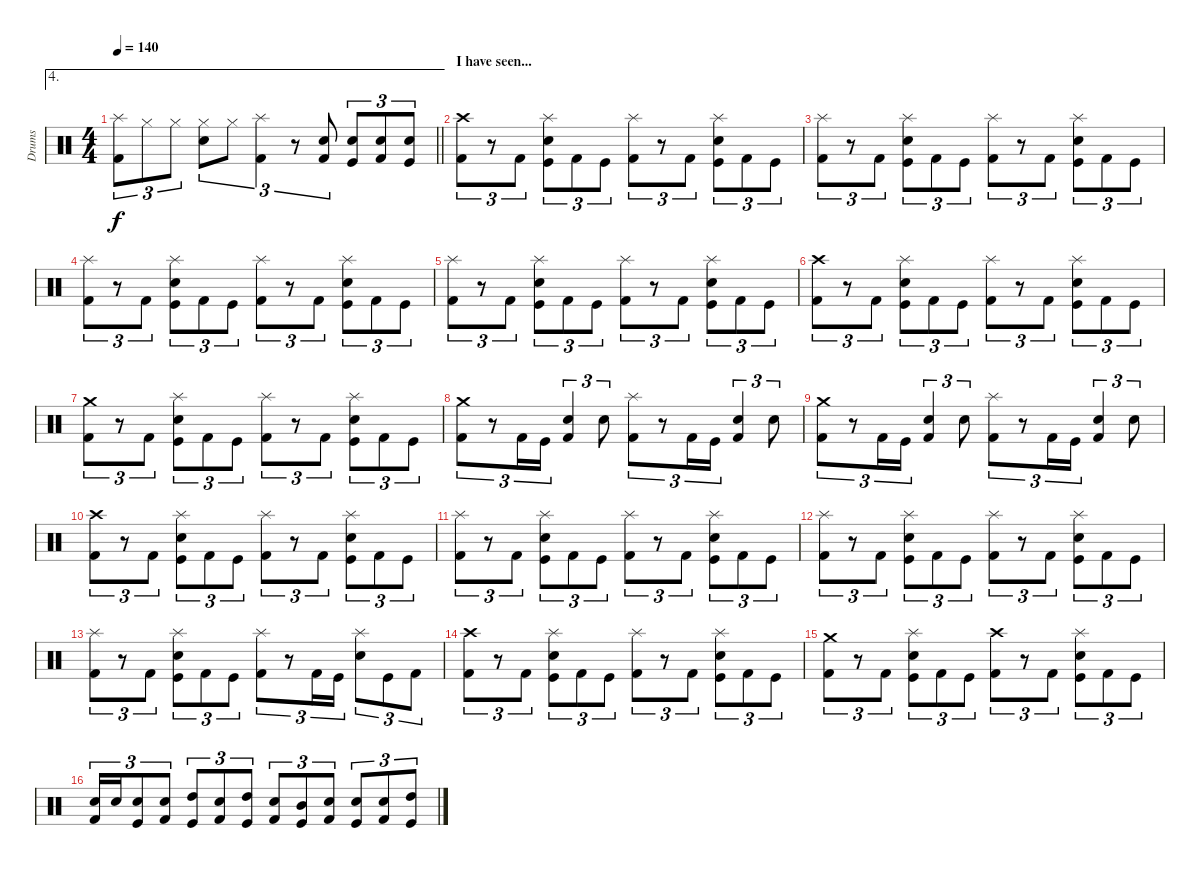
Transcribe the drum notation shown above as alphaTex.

\track ("Drums" "Drums") {instrument percussion}
\staff {score}
\articulation defaults
\ae 4
\ts (4 4)
\tempo 140
\clef neutral
\barLineRight lightlight
\ks c
("Splash (hit)" "Kick (hit) 2").8{tu (3 2) dy f} "Hi-Hat (closed)".8{tu (3 2)} "Hi-Hat (closed)".8{tu (3 2)} ("Hi-Hat (closed)" "Snare (hit) 2").8{tu (3 2)} "Hi-Hat (closed)".8{tu (3 2)} ("Splash (hit)" "Kick (hit) 2").4{tu (3 2)} r.8{tu (3 2)} ("Snare (hit) 2" "Kick (hit) 2").8{tu (3 2)} ("Snare (hit) 2" "Kick (hit)").8{tu (3 2)} ("Snare (hit) 2" "Kick (hit) 2").8{tu (3 2)} ("Snare (hit) 2" "Kick (hit)").8{tu (3 2)} |
\section ("" "I have seen...")
("Crash high (hit)" "Kick (hit) 2").8{tu (3 2)} r.8{tu (3 2)} "Kick (hit) 2".8{tu (3 2)} ("Splash (hit)" "Snare (hit) 2" "Kick (hit)").8{tu (3 2)} "Kick (hit) 2".8{tu (3 2)} "Kick (hit)".8{tu (3 2)} ("Splash (hit)" "Kick (hit) 2").8{tu (3 2)} r.8{tu (3 2)} "Kick (hit) 2".8{tu (3 2)} ("Splash (hit)" "Snare (hit) 2" "Kick (hit)").8{tu (3 2)} "Kick (hit) 2".8{tu (3 2)} "Kick (hit)".8{tu (3 2)} |
("Splash (hit)" "Kick (hit) 2").8{tu (3 2)} r.8{tu (3 2)} "Kick (hit) 2".8{tu (3 2)} ("Splash (hit)" "Snare (hit) 2" "Kick (hit)").8{tu (3 2)} "Kick (hit) 2".8{tu (3 2)} "Kick (hit)".8{tu (3 2)} ("Splash (hit)" "Kick (hit) 2").8{tu (3 2)} r.8{tu (3 2)} "Kick (hit) 2".8{tu (3 2)} ("Splash (hit)" "Snare (hit) 2" "Kick (hit)").8{tu (3 2)} "Kick (hit) 2".8{tu (3 2)} "Kick (hit)".8{tu (3 2)} |
("Splash (hit)" "Kick (hit) 2").8{tu (3 2)} r.8{tu (3 2)} "Kick (hit) 2".8{tu (3 2)} ("Splash (hit)" "Snare (hit) 2" "Kick (hit)").8{tu (3 2)} "Kick (hit) 2".8{tu (3 2)} "Kick (hit)".8{tu (3 2)} ("Splash (hit)" "Kick (hit) 2").8{tu (3 2)} r.8{tu (3 2)} "Kick (hit) 2".8{tu (3 2)} ("Splash (hit)" "Snare (hit) 2" "Kick (hit)").8{tu (3 2)} "Kick (hit) 2".8{tu (3 2)} "Kick (hit)".8{tu (3 2)} |
("Splash (hit)" "Kick (hit) 2").8{tu (3 2)} r.8{tu (3 2)} "Kick (hit) 2".8{tu (3 2)} ("Splash (hit)" "Snare (hit) 2" "Kick (hit)").8{tu (3 2)} "Kick (hit) 2".8{tu (3 2)} "Kick (hit)".8{tu (3 2)} ("Splash (hit)" "Kick (hit) 2").8{tu (3 2)} r.8{tu (3 2)} "Kick (hit) 2".8{tu (3 2)} ("Splash (hit)" "Snare (hit) 2" "Kick (hit)").8{tu (3 2)} "Kick (hit) 2".8{tu (3 2)} "Kick (hit)".8{tu (3 2)} |
("Crash high (hit)" "Kick (hit) 2").8{tu (3 2)} r.8{tu (3 2)} "Kick (hit) 2".8{tu (3 2)} ("Splash (hit)" "Snare (hit) 2" "Kick (hit)").8{tu (3 2)} "Kick (hit) 2".8{tu (3 2)} "Kick (hit)".8{tu (3 2)} ("Splash (hit)" "Kick (hit) 2").8{tu (3 2)} r.8{tu (3 2)} "Kick (hit) 2".8{tu (3 2)} ("Splash (hit)" "Snare (hit) 2" "Kick (hit)").8{tu (3 2)} "Kick (hit) 2".8{tu (3 2)} "Kick (hit)".8{tu (3 2)} |
("Crash medium (hit)" "Kick (hit) 2").8{tu (3 2)} r.8{tu (3 2)} "Kick (hit) 2".8{tu (3 2)} ("Splash (hit)" "Snare (hit) 2" "Kick (hit)").8{tu (3 2)} "Kick (hit) 2".8{tu (3 2)} "Kick (hit)".8{tu (3 2)} ("Splash (hit)" "Kick (hit) 2").8{tu (3 2)} r.8{tu (3 2)} "Kick (hit) 2".8{tu (3 2)} ("Splash (hit)" "Snare (hit) 2" "Kick (hit)").8{tu (3 2)} "Kick (hit) 2".8{tu (3 2)} "Kick (hit)".8{tu (3 2)} |
("Crash medium (hit)" "Kick (hit) 2").8{tu (3 2)} r.8{tu (3 2)} "Kick (hit) 2".16{tu (3 2)} "Kick (hit)".16{tu (3 2)} ("Snare (hit) 2" "Kick (hit) 2").4{tu (3 2)} "Snare (hit) 2".8{tu (3 2)} ("Splash (hit)" "Kick (hit) 2").8{tu (3 2)} r.8{tu (3 2)} "Kick (hit) 2".16{tu (3 2)} "Kick (hit)".16{tu (3 2)} ("Snare (hit) 2" "Kick (hit) 2").4{tu (3 2)} "Snare (hit) 2".8{tu (3 2)} |
("Crash medium (hit)" "Kick (hit) 2").8{tu (3 2)} r.8{tu (3 2)} "Kick (hit) 2".16{tu (3 2)} "Kick (hit)".16{tu (3 2)} ("Snare (hit) 2" "Kick (hit) 2").4{tu (3 2)} "Snare (hit) 2".8{tu (3 2)} ("Splash (hit)" "Kick (hit) 2").8{tu (3 2)} r.8{tu (3 2)} "Kick (hit) 2".16{tu (3 2)} "Kick (hit)".16{tu (3 2)} ("Snare (hit) 2" "Kick (hit) 2").4{tu (3 2)} "Snare (hit) 2".8{tu (3 2)} |
("Crash high (hit)" "Kick (hit) 2").8{tu (3 2)} r.8{tu (3 2)} "Kick (hit) 2".8{tu (3 2)} ("Splash (hit)" "Snare (hit) 2" "Kick (hit)").8{tu (3 2)} "Kick (hit) 2".8{tu (3 2)} "Kick (hit)".8{tu (3 2)} ("Splash (hit)" "Kick (hit) 2").8{tu (3 2)} r.8{tu (3 2)} "Kick (hit) 2".8{tu (3 2)} ("Splash (hit)" "Snare (hit) 2" "Kick (hit)").8{tu (3 2)} "Kick (hit) 2".8{tu (3 2)} "Kick (hit)".8{tu (3 2)} |
("Splash (hit)" "Kick (hit) 2").8{tu (3 2)} r.8{tu (3 2)} "Kick (hit) 2".8{tu (3 2)} ("Splash (hit)" "Snare (hit) 2" "Kick (hit)").8{tu (3 2)} "Kick (hit) 2".8{tu (3 2)} "Kick (hit)".8{tu (3 2)} ("Splash (hit)" "Kick (hit) 2").8{tu (3 2)} r.8{tu (3 2)} "Kick (hit) 2".8{tu (3 2)} ("Splash (hit)" "Snare (hit) 2" "Kick (hit)").8{tu (3 2)} "Kick (hit) 2".8{tu (3 2)} "Kick (hit)".8{tu (3 2)} |
("Splash (hit)" "Kick (hit) 2").8{tu (3 2)} r.8{tu (3 2)} "Kick (hit) 2".8{tu (3 2)} ("Splash (hit)" "Snare (hit) 2" "Kick (hit)").8{tu (3 2)} "Kick (hit) 2".8{tu (3 2)} "Kick (hit)".8{tu (3 2)} ("Splash (hit)" "Kick (hit) 2").8{tu (3 2)} r.8{tu (3 2)} "Kick (hit) 2".8{tu (3 2)} ("Splash (hit)" "Snare (hit) 2" "Kick (hit)").8{tu (3 2)} "Kick (hit) 2".8{tu (3 2)} "Kick (hit)".8{tu (3 2)} |
("Splash (hit)" "Kick (hit) 2").8{tu (3 2)} r.8{tu (3 2)} "Kick (hit) 2".8{tu (3 2)} ("Splash (hit)" "Snare (hit) 2" "Kick (hit)").8{tu (3 2)} "Kick (hit) 2".8{tu (3 2)} "Kick (hit)".8{tu (3 2)} ("Splash (hit)" "Kick (hit) 2").8{tu (3 2)} r.8{tu (3 2)} "Kick (hit) 2".16{tu (3 2)} "Kick (hit)".16{tu (3 2)} ("Splash (hit)" "Snare (hit) 2").8{tu (3 2)} "Kick (hit)".8{tu (3 2)} "Kick (hit) 2".8{tu (3 2)} |
("Crash high (hit)" "Kick (hit) 2").8{tu (3 2)} r.8{tu (3 2)} "Kick (hit) 2".8{tu (3 2)} ("Splash (hit)" "Snare (hit) 2" "Kick (hit)").8{tu (3 2)} "Kick (hit) 2".8{tu (3 2)} "Kick (hit)".8{tu (3 2)} ("Splash (hit)" "Kick (hit) 2").8{tu (3 2)} r.8{tu (3 2)} "Kick (hit) 2".8{tu (3 2)} ("Splash (hit)" "Snare (hit) 2" "Kick (hit)").8{tu (3 2)} "Kick (hit) 2".8{tu (3 2)} "Kick (hit)".8{tu (3 2)} |
("Crash medium (hit)" "Kick (hit) 2").8{tu (3 2)} r.8{tu (3 2)} "Kick (hit) 2".8{tu (3 2)} ("Splash (hit)" "Snare (hit) 2" "Kick (hit)").8{tu (3 2)} "Kick (hit) 2".8{tu (3 2)} "Kick (hit)".8{tu (3 2)} ("Crash high (hit)" "Kick (hit) 2").8{tu (3 2)} r.8{tu (3 2)} "Kick (hit) 2".8{tu (3 2)} ("Splash (hit)" "Snare (hit) 2" "Kick (hit)").8{tu (3 2)} "Kick (hit) 2".8{tu (3 2)} "Kick (hit)".8{tu (3 2)} |
("Snare (hit) 2" "Kick (hit) 2").16{tu (3 2)} "Snare (hit) 2".16{tu (3 2)} ("Snare (hit) 2" "Kick (hit)").8{tu (3 2)} ("Snare (hit) 2" "Kick (hit) 2").8{tu (3 2)} ("High Tom (hit)" "Kick (hit)").8{tu (3 2)} ("Snare (hit) 2" "Kick (hit) 2").8{tu (3 2)} ("High Tom (hit)" "Kick (hit)").8{tu (3 2)} ("Snare (hit) 2" "Kick (hit) 2").8{tu (3 2)} ("Mid Tom (hit)" "Kick (hit)").8{tu (3 2)} ("Snare (hit) 2" "Kick (hit) 2").8{tu (3 2)} ("Snare (hit) 2" "Kick (hit)").8{tu (3 2)} ("Snare (hit) 2" "Kick (hit) 2").8{tu (3 2)} ("High Tom (hit)" "Kick (hit)").8{tu (3 2)}
